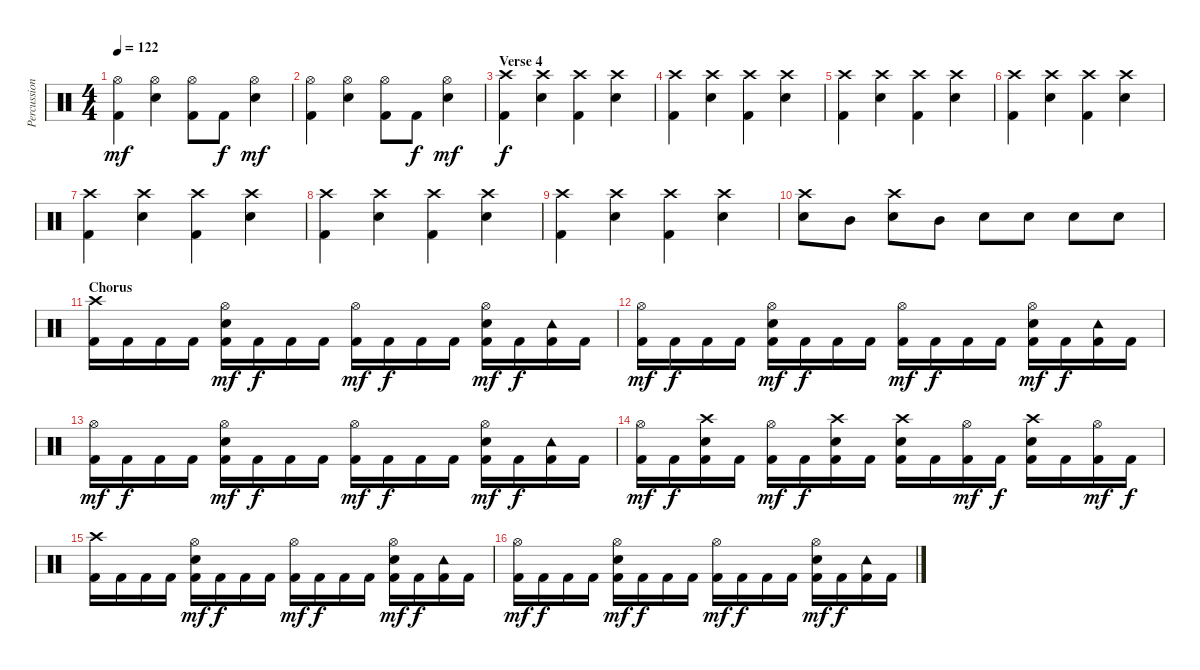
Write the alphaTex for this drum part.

\track ("Percussion" "Percussion") {instrument percussion}
\staff {score}
\articulation defaults
\ts (4 4)
\tempo 122
\clef neutral
\ks c
("Hi-Hat (open)" "Kick (hit) 2").4{dy mf} ("Hi-Hat (open)" "Electric Snare (hit)").4 ("Hi-Hat (open)" "Kick (hit) 2").8 "Kick (hit) 2".8{dy f} ("Hi-Hat (open)" "Electric Snare (hit)").4{dy mf} |
("Hi-Hat (open)" "Kick (hit) 2").4 ("Hi-Hat (open)" "Electric Snare (hit)").4 ("Hi-Hat (open)" "Kick (hit) 2").8 "Kick (hit) 2".8{dy f} ("Hi-Hat (open)" "Electric Snare (hit)").4{dy mf} |
\section ("" "Verse 4")
("Crash high (hit)" "Kick (hit) 2").4{dy f} ("Crash high (hit)" "Electric Snare (hit)").4 ("Crash high (hit)" "Kick (hit) 2").4 ("Crash high (hit)" "Electric Snare (hit)").4 |
("Crash high (hit)" "Kick (hit) 2").4 ("Crash high (hit)" "Electric Snare (hit)").4 ("Crash high (hit)" "Kick (hit) 2").4 ("Crash high (hit)" "Electric Snare (hit)").4 |
("Crash high (hit)" "Kick (hit) 2").4 ("Crash high (hit)" "Electric Snare (hit)").4 ("Crash high (hit)" "Kick (hit) 2").4 ("Crash high (hit)" "Electric Snare (hit)").4 |
("Crash high (hit)" "Kick (hit) 2").4 ("Crash high (hit)" "Electric Snare (hit)").4 ("Crash high (hit)" "Kick (hit) 2").4 ("Crash high (hit)" "Electric Snare (hit)").4 |
("Crash high (hit)" "Kick (hit) 2").4 ("Crash high (hit)" "Electric Snare (hit)").4 ("Crash high (hit)" "Kick (hit) 2").4 ("Crash high (hit)" "Electric Snare (hit)").4 |
("Crash high (hit)" "Kick (hit) 2").4 ("Crash high (hit)" "Electric Snare (hit)").4 ("Crash high (hit)" "Kick (hit) 2").4 ("Crash high (hit)" "Electric Snare (hit)").4 |
("Crash high (hit)" "Kick (hit) 2").4 ("Crash high (hit)" "Electric Snare (hit)").4 ("Crash high (hit)" "Kick (hit) 2").4 ("Crash high (hit)" "Electric Snare (hit)").4 |
("Crash high (hit)" "Electric Snare (hit)").8 "Mid Tom (hit)".8 ("Crash high (hit)" "Electric Snare (hit)").8 "Mid Tom (hit)".8 "Electric Snare (hit)".8 "Electric Snare (hit)".8 "Electric Snare (hit)".8 "Electric Snare (hit)".8 |
\section ("" "Chorus")
("Crash high (hit)" "Kick (hit) 2").16 "Kick (hit) 2".16 "Kick (hit) 2".16 "Kick (hit) 2".16 ("Hi-Hat (open)" "Electric Snare (hit)" "Kick (hit) 2").16{dy mf} "Kick (hit) 2".16{dy f} "Kick (hit) 2".16 "Kick (hit) 2".16 ("Hi-Hat (open)" "Kick (hit) 2").16{dy mf} "Kick (hit) 2".16{dy f} "Kick (hit) 2".16 "Kick (hit) 2".16 ("Hi-Hat (open)" "Electric Snare (hit)" "Kick (hit) 2").16{dy mf} "Kick (hit) 2".16{dy f} ("Tambourine (hit)" "Kick (hit) 2").16 "Kick (hit) 2".16 |
("Hi-Hat (open)" "Kick (hit) 2").16{dy mf} "Kick (hit) 2".16{dy f} "Kick (hit) 2".16 "Kick (hit) 2".16 ("Hi-Hat (open)" "Electric Snare (hit)" "Kick (hit) 2").16{dy mf} "Kick (hit) 2".16{dy f} "Kick (hit) 2".16 "Kick (hit) 2".16 ("Hi-Hat (open)" "Kick (hit) 2").16{dy mf} "Kick (hit) 2".16{dy f} "Kick (hit) 2".16 "Kick (hit) 2".16 ("Hi-Hat (open)" "Electric Snare (hit)" "Kick (hit) 2").16{dy mf} "Kick (hit) 2".16{dy f} ("Tambourine (hit)" "Kick (hit) 2").16 "Kick (hit) 2".16 |
("Hi-Hat (open)" "Kick (hit) 2").16{dy mf} "Kick (hit) 2".16{dy f} "Kick (hit) 2".16 "Kick (hit) 2".16 ("Hi-Hat (open)" "Electric Snare (hit)" "Kick (hit) 2").16{dy mf} "Kick (hit) 2".16{dy f} "Kick (hit) 2".16 "Kick (hit) 2".16 ("Hi-Hat (open)" "Kick (hit) 2").16{dy mf} "Kick (hit) 2".16{dy f} "Kick (hit) 2".16 "Kick (hit) 2".16 ("Hi-Hat (open)" "Electric Snare (hit)" "Kick (hit) 2").16{dy mf} "Kick (hit) 2".16{dy f} ("Tambourine (hit)" "Kick (hit) 2").16 "Kick (hit) 2".16 |
("Hi-Hat (open)" "Kick (hit) 2").16{dy mf} "Kick (hit) 2".16{dy f} ("Crash high (hit)" "Electric Snare (hit)" "Kick (hit) 2").16 "Kick (hit) 2".16 ("Hi-Hat (open)" "Kick (hit) 2").16{dy mf} "Kick (hit) 2".16{dy f} ("Crash high (hit)" "Electric Snare (hit)" "Kick (hit) 2").16 "Kick (hit) 2".16 ("Crash high (hit)" "Electric Snare (hit)" "Kick (hit) 2").16 "Kick (hit) 2".16 ("Hi-Hat (open)" "Kick (hit) 2").16{dy mf} "Kick (hit) 2".16{dy f} ("Crash high (hit)" "Electric Snare (hit)" "Kick (hit) 2").16 "Kick (hit) 2".16 ("Hi-Hat (open)" "Kick (hit) 2").16{dy mf} "Kick (hit) 2".16{dy f} |
("Crash high (hit)" "Kick (hit) 2").16 "Kick (hit) 2".16 "Kick (hit) 2".16 "Kick (hit) 2".16 ("Hi-Hat (open)" "Electric Snare (hit)" "Kick (hit) 2").16{dy mf} "Kick (hit) 2".16{dy f} "Kick (hit) 2".16 "Kick (hit) 2".16 ("Hi-Hat (open)" "Kick (hit) 2").16{dy mf} "Kick (hit) 2".16{dy f} "Kick (hit) 2".16 "Kick (hit) 2".16 ("Hi-Hat (open)" "Electric Snare (hit)" "Kick (hit) 2").16{dy mf} "Kick (hit) 2".16{dy f} ("Tambourine (hit)" "Kick (hit) 2").16 "Kick (hit) 2".16 |
("Hi-Hat (open)" "Kick (hit) 2").16{dy mf} "Kick (hit) 2".16{dy f} "Kick (hit) 2".16 "Kick (hit) 2".16 ("Hi-Hat (open)" "Electric Snare (hit)" "Kick (hit) 2").16{dy mf} "Kick (hit) 2".16{dy f} "Kick (hit) 2".16 "Kick (hit) 2".16 ("Hi-Hat (open)" "Kick (hit) 2").16{dy mf} "Kick (hit) 2".16{dy f} "Kick (hit) 2".16 "Kick (hit) 2".16 ("Hi-Hat (open)" "Electric Snare (hit)" "Kick (hit) 2").16{dy mf} "Kick (hit) 2".16{dy f} ("Tambourine (hit)" "Kick (hit) 2").16 "Kick (hit) 2".16
